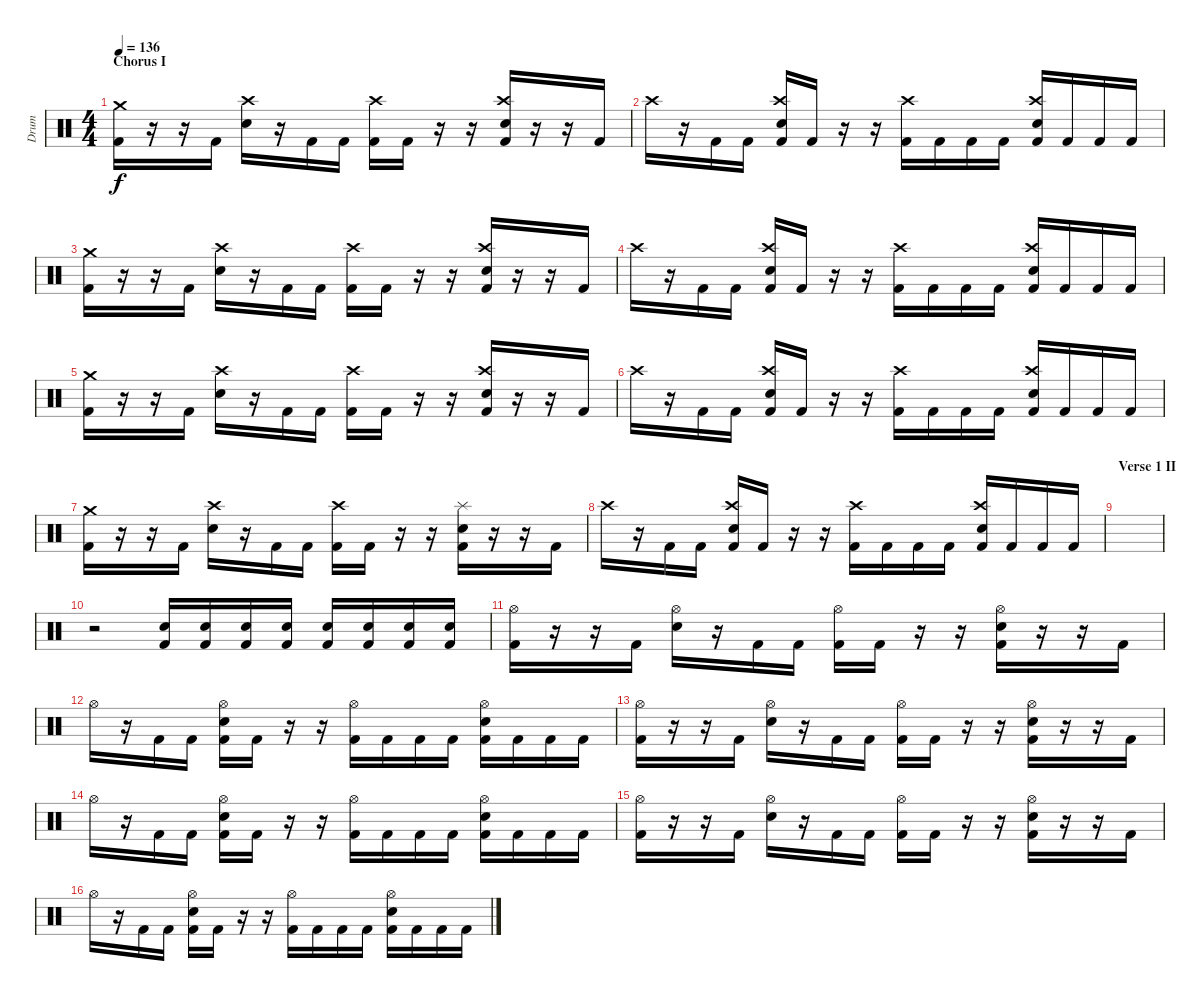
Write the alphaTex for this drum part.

\track ("Drum" "Drum") {instrument percussion}
\staff {score}
\articulation defaults
\ts (4 4)
\section ("" "Chorus I")
\tempo 136
\clef neutral
\ks c
("Crash medium (hit)" "Kick (hit) 2").16{dy f} r.16 r.16 "Kick (hit) 2".16 ("Crash high (hit)" "Snare (hit) 2").16 r.16 "Kick (hit) 2".16 "Kick (hit) 2".16 ("Crash high (hit)" "Kick (hit) 2").16 "Kick (hit) 2".16 r.16 r.16 ("Crash high (hit)" "Snare (hit) 2" "Kick (hit) 2").16 r.16 r.16 "Kick (hit) 2".16 |
"Crash high (hit)".16 r.16 "Kick (hit) 2".16 "Kick (hit) 2".16 ("Crash high (hit)" "Snare (hit) 2" "Kick (hit) 2").16 "Kick (hit) 2".16 r.16 r.16 ("Crash high (hit)" "Kick (hit) 2").16 "Kick (hit) 2".16 "Kick (hit) 2".16 "Kick (hit) 2".16 ("Crash high (hit)" "Snare (hit) 2" "Kick (hit) 2").16 "Kick (hit) 2".16 "Kick (hit) 2".16 "Kick (hit) 2".16 |
("Crash medium (hit)" "Kick (hit) 2").16 r.16 r.16 "Kick (hit) 2".16 ("Crash high (hit)" "Snare (hit) 2").16 r.16 "Kick (hit) 2".16 "Kick (hit) 2".16 ("Crash high (hit)" "Kick (hit) 2").16 "Kick (hit) 2".16 r.16 r.16 ("Crash high (hit)" "Snare (hit) 2" "Kick (hit) 2").16 r.16 r.16 "Kick (hit) 2".16 |
"Crash high (hit)".16 r.16 "Kick (hit) 2".16 "Kick (hit) 2".16 ("Crash high (hit)" "Snare (hit) 2" "Kick (hit) 2").16 "Kick (hit) 2".16 r.16 r.16 ("Crash high (hit)" "Kick (hit) 2").16 "Kick (hit) 2".16 "Kick (hit) 2".16 "Kick (hit) 2".16 ("Crash high (hit)" "Snare (hit) 2" "Kick (hit) 2").16 "Kick (hit) 2".16 "Kick (hit) 2".16 "Kick (hit) 2".16 |
("Crash medium (hit)" "Kick (hit) 2").16 r.16 r.16 "Kick (hit) 2".16 ("Crash high (hit)" "Snare (hit) 2").16 r.16 "Kick (hit) 2".16 "Kick (hit) 2".16 ("Crash high (hit)" "Kick (hit) 2").16 "Kick (hit) 2".16 r.16 r.16 ("Crash high (hit)" "Snare (hit) 2" "Kick (hit) 2").16 r.16 r.16 "Kick (hit) 2".16 |
"Crash high (hit)".16 r.16 "Kick (hit) 2".16 "Kick (hit) 2".16 ("Crash high (hit)" "Snare (hit) 2" "Kick (hit) 2").16 "Kick (hit) 2".16 r.16 r.16 ("Crash high (hit)" "Kick (hit) 2").16 "Kick (hit) 2".16 "Kick (hit) 2".16 "Kick (hit) 2".16 ("Crash high (hit)" "Snare (hit) 2" "Kick (hit) 2").16 "Kick (hit) 2".16 "Kick (hit) 2".16 "Kick (hit) 2".16 |
("Crash medium (hit)" "Kick (hit) 2").16 r.16 r.16 "Kick (hit) 2".16 ("Crash high (hit)" "Snare (hit) 2").16 r.16 "Kick (hit) 2".16 "Kick (hit) 2".16 ("Crash high (hit)" "Kick (hit) 2").16 "Kick (hit) 2".16 r.16 r.16 ("Splash (hit)" "Snare (hit) 2" "Kick (hit) 2").16 r.16 r.16 "Kick (hit) 2".16 |
"Crash high (hit)".16 r.16 "Kick (hit) 2".16 "Kick (hit) 2".16 ("Crash high (hit)" "Snare (hit) 2" "Kick (hit) 2").16 "Kick (hit) 2".16 r.16 r.16 ("Crash high (hit)" "Kick (hit) 2").16 "Kick (hit) 2".16 "Kick (hit) 2".16 "Kick (hit) 2".16 ("Crash high (hit)" "Snare (hit) 2" "Kick (hit) 2").16 "Kick (hit) 2".16 "Kick (hit) 2".16 "Kick (hit) 2".16 |
\section ("" "Verse 1 II")
|
r.2 ("Snare (hit) 2" "Kick (hit) 2").16 ("Snare (hit) 2" "Kick (hit) 2").16 ("Snare (hit) 2" "Kick (hit) 2").16 ("Snare (hit) 2" "Kick (hit) 2").16 ("Snare (hit) 2" "Kick (hit) 2").16 ("Snare (hit) 2" "Kick (hit) 2").16 ("Snare (hit) 2" "Kick (hit) 2").16 ("Snare (hit) 2" "Kick (hit) 2").16 |
("Hi-Hat (open)" "Kick (hit) 2").16 r.16 r.16 "Kick (hit) 2".16 ("Hi-Hat (open)" "Snare (hit) 2").16 r.16 "Kick (hit) 2".16 "Kick (hit) 2".16 ("Hi-Hat (open)" "Kick (hit) 2").16 "Kick (hit) 2".16 r.16 r.16 ("Hi-Hat (open)" "Snare (hit) 2" "Kick (hit) 2").16 r.16 r.16 "Kick (hit) 2".16 |
"Hi-Hat (open)".16 r.16 "Kick (hit) 2".16 "Kick (hit) 2".16 ("Hi-Hat (open)" "Snare (hit) 2" "Kick (hit) 2").16 "Kick (hit) 2".16 r.16 r.16 ("Hi-Hat (open)" "Kick (hit) 2").16 "Kick (hit) 2".16 "Kick (hit) 2".16 "Kick (hit) 2".16 ("Hi-Hat (open)" "Snare (hit) 2" "Kick (hit) 2").16 "Kick (hit) 2".16 "Kick (hit) 2".16 "Kick (hit) 2".16 |
("Hi-Hat (open)" "Kick (hit) 2").16 r.16 r.16 "Kick (hit) 2".16 ("Hi-Hat (open)" "Snare (hit) 2").16 r.16 "Kick (hit) 2".16 "Kick (hit) 2".16 ("Hi-Hat (open)" "Kick (hit) 2").16 "Kick (hit) 2".16 r.16 r.16 ("Hi-Hat (open)" "Snare (hit) 2" "Kick (hit) 2").16 r.16 r.16 "Kick (hit) 2".16 |
"Hi-Hat (open)".16 r.16 "Kick (hit) 2".16 "Kick (hit) 2".16 ("Hi-Hat (open)" "Snare (hit) 2" "Kick (hit) 2").16 "Kick (hit) 2".16 r.16 r.16 ("Hi-Hat (open)" "Kick (hit) 2").16 "Kick (hit) 2".16 "Kick (hit) 2".16 "Kick (hit) 2".16 ("Hi-Hat (open)" "Snare (hit) 2" "Kick (hit) 2").16 "Kick (hit) 2".16 "Kick (hit) 2".16 "Kick (hit) 2".16 |
("Hi-Hat (open)" "Kick (hit) 2").16 r.16 r.16 "Kick (hit) 2".16 ("Hi-Hat (open)" "Snare (hit) 2").16 r.16 "Kick (hit) 2".16 "Kick (hit) 2".16 ("Hi-Hat (open)" "Kick (hit) 2").16 "Kick (hit) 2".16 r.16 r.16 ("Hi-Hat (open)" "Snare (hit) 2" "Kick (hit) 2").16 r.16 r.16 "Kick (hit) 2".16 |
"Hi-Hat (open)".16 r.16 "Kick (hit) 2".16 "Kick (hit) 2".16 ("Hi-Hat (open)" "Snare (hit) 2" "Kick (hit) 2").16 "Kick (hit) 2".16 r.16 r.16 ("Hi-Hat (open)" "Kick (hit) 2").16 "Kick (hit) 2".16 "Kick (hit) 2".16 "Kick (hit) 2".16 ("Hi-Hat (open)" "Snare (hit) 2" "Kick (hit) 2").16 "Kick (hit) 2".16 "Kick (hit) 2".16 "Kick (hit) 2".16
